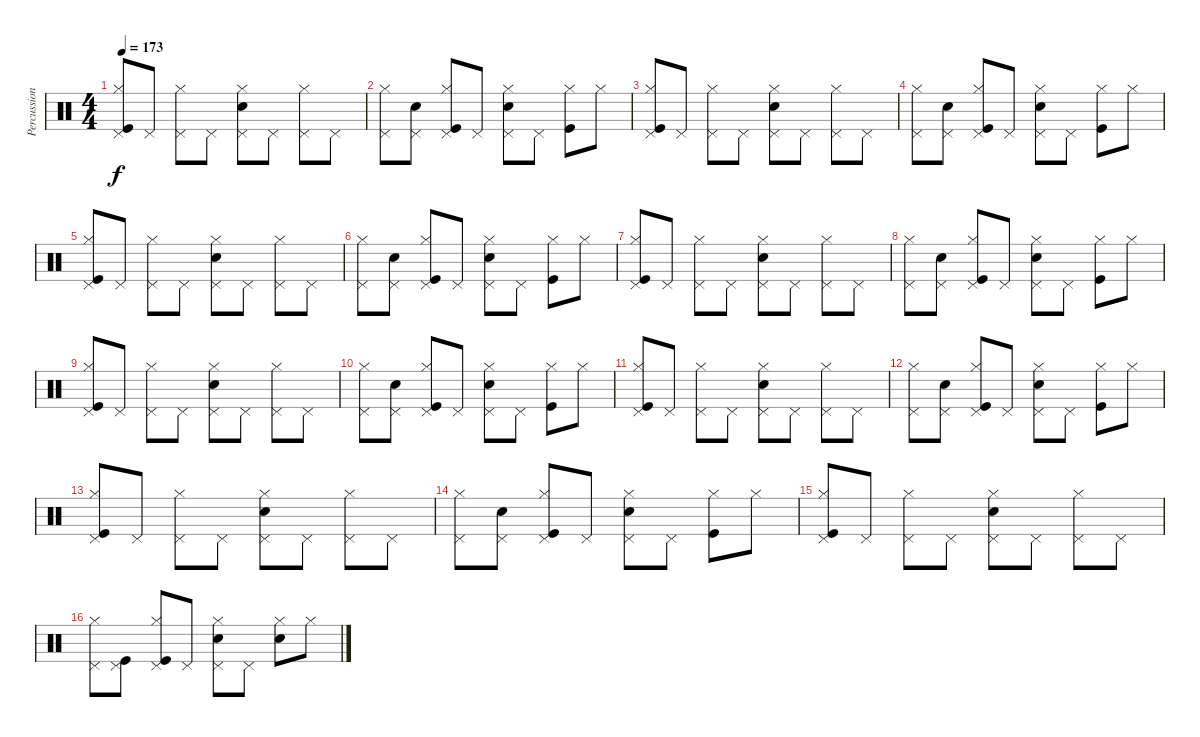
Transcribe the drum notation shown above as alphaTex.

\track ("Percussion" "Percussion") {instrument percussion}
\staff {score}
\articulation defaults
\ts (4 4)
\tempo 173
\clef neutral
\ks c
("Kick (hit)" "Hi-Hat (closed)" "Pedal Hi-Hat (hit)").8{dy f} "Pedal Hi-Hat (hit)".8 ("Hi-Hat (closed)" "Pedal Hi-Hat (hit)").8 "Pedal Hi-Hat (hit)".8 ("Snare (hit) 2" "Hi-Hat (closed)" "Pedal Hi-Hat (hit)").8 "Pedal Hi-Hat (hit)".8 ("Hi-Hat (closed)" "Pedal Hi-Hat (hit)").8 "Pedal Hi-Hat (hit)".8 |
("Hi-Hat (closed)" "Pedal Hi-Hat (hit)").8 ("Snare (hit) 2" "Pedal Hi-Hat (hit)").8 ("Kick (hit)" "Hi-Hat (closed)" "Pedal Hi-Hat (hit)").8 "Pedal Hi-Hat (hit)".8 ("Snare (hit) 2" "Hi-Hat (closed)" "Pedal Hi-Hat (hit)").8 "Pedal Hi-Hat (hit)".8 ("Kick (hit)" "Hi-Hat (closed)").8 "Hi-Hat (closed)".8 |
("Kick (hit)" "Hi-Hat (closed)" "Pedal Hi-Hat (hit)").8 "Pedal Hi-Hat (hit)".8 ("Hi-Hat (closed)" "Pedal Hi-Hat (hit)").8 "Pedal Hi-Hat (hit)".8 ("Snare (hit) 2" "Hi-Hat (closed)" "Pedal Hi-Hat (hit)").8 "Pedal Hi-Hat (hit)".8 ("Hi-Hat (closed)" "Pedal Hi-Hat (hit)").8 "Pedal Hi-Hat (hit)".8 |
("Hi-Hat (closed)" "Pedal Hi-Hat (hit)").8 ("Snare (hit) 2" "Pedal Hi-Hat (hit)").8 ("Kick (hit)" "Hi-Hat (closed)" "Pedal Hi-Hat (hit)").8 "Pedal Hi-Hat (hit)".8 ("Snare (hit) 2" "Hi-Hat (closed)" "Pedal Hi-Hat (hit)").8 "Pedal Hi-Hat (hit)".8 ("Kick (hit)" "Hi-Hat (closed)").8 "Hi-Hat (closed)".8 |
("Kick (hit)" "Hi-Hat (closed)" "Pedal Hi-Hat (hit)").8 "Pedal Hi-Hat (hit)".8 ("Hi-Hat (closed)" "Pedal Hi-Hat (hit)").8 "Pedal Hi-Hat (hit)".8 ("Snare (hit) 2" "Hi-Hat (closed)" "Pedal Hi-Hat (hit)").8 "Pedal Hi-Hat (hit)".8 ("Hi-Hat (closed)" "Pedal Hi-Hat (hit)").8 "Pedal Hi-Hat (hit)".8 |
("Hi-Hat (closed)" "Pedal Hi-Hat (hit)").8 ("Snare (hit) 2" "Pedal Hi-Hat (hit)").8 ("Kick (hit)" "Hi-Hat (closed)" "Pedal Hi-Hat (hit)").8 "Pedal Hi-Hat (hit)".8 ("Snare (hit) 2" "Hi-Hat (closed)" "Pedal Hi-Hat (hit)").8 "Pedal Hi-Hat (hit)".8 ("Kick (hit)" "Hi-Hat (closed)").8 "Hi-Hat (closed)".8 |
("Kick (hit)" "Hi-Hat (closed)" "Pedal Hi-Hat (hit)").8 "Pedal Hi-Hat (hit)".8 ("Hi-Hat (closed)" "Pedal Hi-Hat (hit)").8 "Pedal Hi-Hat (hit)".8 ("Snare (hit) 2" "Hi-Hat (closed)" "Pedal Hi-Hat (hit)").8 "Pedal Hi-Hat (hit)".8 ("Hi-Hat (closed)" "Pedal Hi-Hat (hit)").8 "Pedal Hi-Hat (hit)".8 |
("Hi-Hat (closed)" "Pedal Hi-Hat (hit)").8 ("Snare (hit) 2" "Pedal Hi-Hat (hit)").8 ("Kick (hit)" "Hi-Hat (closed)" "Pedal Hi-Hat (hit)").8 "Pedal Hi-Hat (hit)".8 ("Snare (hit) 2" "Hi-Hat (closed)" "Pedal Hi-Hat (hit)").8 "Pedal Hi-Hat (hit)".8 ("Kick (hit)" "Hi-Hat (closed)").8 "Hi-Hat (closed)".8 |
("Kick (hit)" "Hi-Hat (closed)" "Pedal Hi-Hat (hit)").8 "Pedal Hi-Hat (hit)".8 ("Hi-Hat (closed)" "Pedal Hi-Hat (hit)").8 "Pedal Hi-Hat (hit)".8 ("Snare (hit) 2" "Hi-Hat (closed)" "Pedal Hi-Hat (hit)").8 "Pedal Hi-Hat (hit)".8 ("Hi-Hat (closed)" "Pedal Hi-Hat (hit)").8 "Pedal Hi-Hat (hit)".8 |
("Hi-Hat (closed)" "Pedal Hi-Hat (hit)").8 ("Snare (hit) 2" "Pedal Hi-Hat (hit)").8 ("Kick (hit)" "Hi-Hat (closed)" "Pedal Hi-Hat (hit)").8 "Pedal Hi-Hat (hit)".8 ("Snare (hit) 2" "Hi-Hat (closed)" "Pedal Hi-Hat (hit)").8 "Pedal Hi-Hat (hit)".8 ("Kick (hit)" "Hi-Hat (closed)").8 "Hi-Hat (closed)".8 |
("Kick (hit)" "Hi-Hat (closed)" "Pedal Hi-Hat (hit)").8 "Pedal Hi-Hat (hit)".8 ("Hi-Hat (closed)" "Pedal Hi-Hat (hit)").8 "Pedal Hi-Hat (hit)".8 ("Snare (hit) 2" "Hi-Hat (closed)" "Pedal Hi-Hat (hit)").8 "Pedal Hi-Hat (hit)".8 ("Hi-Hat (closed)" "Pedal Hi-Hat (hit)").8 "Pedal Hi-Hat (hit)".8 |
("Hi-Hat (closed)" "Pedal Hi-Hat (hit)").8 ("Snare (hit) 2" "Pedal Hi-Hat (hit)").8 ("Kick (hit)" "Hi-Hat (closed)" "Pedal Hi-Hat (hit)").8 "Pedal Hi-Hat (hit)".8 ("Snare (hit) 2" "Hi-Hat (closed)" "Pedal Hi-Hat (hit)").8 "Pedal Hi-Hat (hit)".8 ("Kick (hit)" "Hi-Hat (closed)").8 "Hi-Hat (closed)".8 |
("Kick (hit)" "Hi-Hat (closed)" "Pedal Hi-Hat (hit)").8 "Pedal Hi-Hat (hit)".8 ("Hi-Hat (closed)" "Pedal Hi-Hat (hit)").8 "Pedal Hi-Hat (hit)".8 ("Snare (hit) 2" "Hi-Hat (closed)" "Pedal Hi-Hat (hit)").8 "Pedal Hi-Hat (hit)".8 ("Hi-Hat (closed)" "Pedal Hi-Hat (hit)").8 "Pedal Hi-Hat (hit)".8 |
("Hi-Hat (closed)" "Pedal Hi-Hat (hit)").8 ("Snare (hit) 2" "Pedal Hi-Hat (hit)").8 ("Kick (hit)" "Hi-Hat (closed)" "Pedal Hi-Hat (hit)").8 "Pedal Hi-Hat (hit)".8 ("Snare (hit) 2" "Hi-Hat (closed)" "Pedal Hi-Hat (hit)").8 "Pedal Hi-Hat (hit)".8 ("Kick (hit)" "Hi-Hat (closed)").8 "Hi-Hat (closed)".8 |
("Kick (hit)" "Hi-Hat (closed)" "Pedal Hi-Hat (hit)").8 "Pedal Hi-Hat (hit)".8 ("Hi-Hat (closed)" "Pedal Hi-Hat (hit)").8 "Pedal Hi-Hat (hit)".8 ("Snare (hit) 2" "Hi-Hat (closed)" "Pedal Hi-Hat (hit)").8 "Pedal Hi-Hat (hit)".8 ("Hi-Hat (closed)" "Pedal Hi-Hat (hit)").8 "Pedal Hi-Hat (hit)".8 |
("Hi-Hat (closed)" "Pedal Hi-Hat (hit)").8 ("Kick (hit)" "Pedal Hi-Hat (hit)").8 ("Kick (hit)" "Hi-Hat (closed)" "Pedal Hi-Hat (hit)").8 "Pedal Hi-Hat (hit)".8 ("Snare (hit) 2" "Hi-Hat (closed)" "Pedal Hi-Hat (hit)").8 "Pedal Hi-Hat (hit)".8 ("Snare (hit) 2" "Hi-Hat (closed)").8 "Hi-Hat (closed)".8
